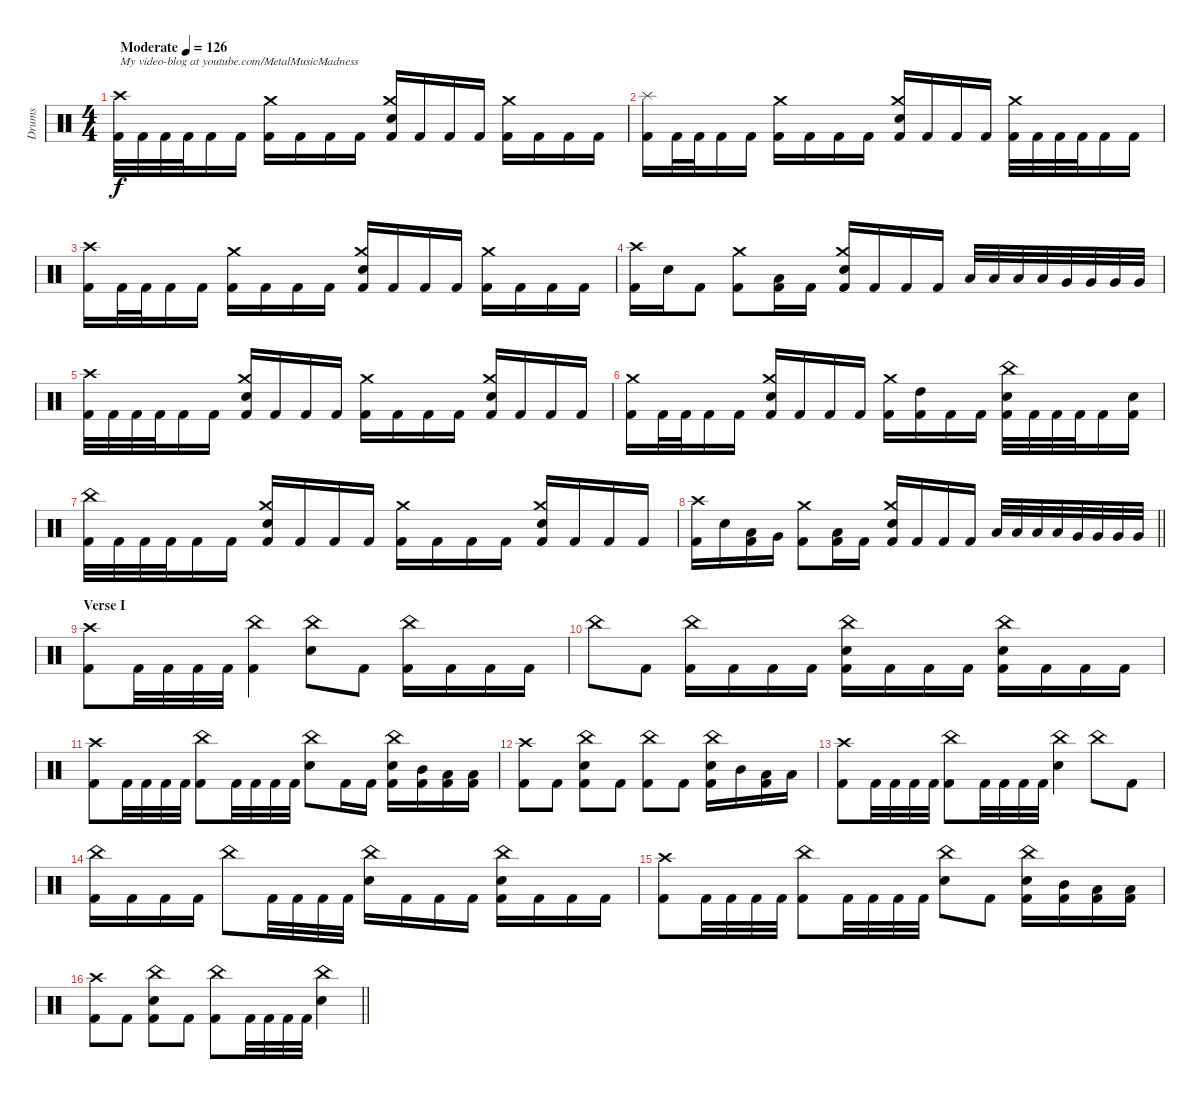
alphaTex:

\track ("Drums" "Drums") {instrument percussion}
\staff {score}
\articulation defaults
\ts (4 4)
\tempo (126 "Moderate")
\clef neutral
\ks c
("Crash high (hit)" "Kick (hit) 2").32{txt "My video-blog at youtube.com/MetalMusicMadness" dy f} "Kick (hit) 2".32 "Kick (hit) 2".32 "Kick (hit) 2".32 "Kick (hit) 2".16 "Kick (hit) 2".16 ("Crash medium (hit)" "Kick (hit) 2").16 "Kick (hit) 2".16 "Kick (hit) 2".16 "Kick (hit) 2".16 ("Crash medium (hit)" "Electric Snare (hit)" "Kick (hit) 2").16 "Kick (hit) 2".16 "Kick (hit) 2".16 "Kick (hit) 2".16 ("Crash medium (hit)" "Kick (hit) 2").16 "Kick (hit) 2".16 "Kick (hit) 2".16 "Kick (hit) 2".16 |
("Splash (hit)" "Kick (hit) 2").16 "Kick (hit) 2".32 "Kick (hit) 2".32 "Kick (hit) 2".16 "Kick (hit) 2".16 ("Crash medium (hit)" "Kick (hit) 2").16 "Kick (hit) 2".16 "Kick (hit) 2".16 "Kick (hit) 2".16 ("Crash medium (hit)" "Electric Snare (hit)" "Kick (hit) 2").16 "Kick (hit) 2".16 "Kick (hit) 2".16 "Kick (hit) 2".16 ("Crash medium (hit)" "Kick (hit) 2").32 "Kick (hit) 2".32 "Kick (hit) 2".32 "Kick (hit) 2".32 "Kick (hit) 2".16 "Kick (hit) 2".16 |
("Crash high (hit)" "Kick (hit) 2").16 "Kick (hit) 2".32 "Kick (hit) 2".32 "Kick (hit) 2".16 "Kick (hit) 2".16 ("Crash medium (hit)" "Kick (hit) 2").16 "Kick (hit) 2".16 "Kick (hit) 2".16 "Kick (hit) 2".16 ("Crash medium (hit)" "Electric Snare (hit)" "Kick (hit) 2").16 "Kick (hit) 2".16 "Kick (hit) 2".16 "Kick (hit) 2".16 ("Crash medium (hit)" "Kick (hit) 2").16 "Kick (hit) 2".16 "Kick (hit) 2".16 "Kick (hit) 2".16 |
("Crash high (hit)" "Kick (hit) 2").16 "Electric Snare (hit)".16 "Kick (hit) 2".8 ("Crash medium (hit)" "Kick (hit) 2").8 ("Low Tom (hit)" "Kick (hit) 2").16 "Kick (hit) 2".16 ("Crash medium (hit)" "Electric Snare (hit)" "Kick (hit) 2").16 "Kick (hit) 2".16 "Kick (hit) 2".16 "Kick (hit) 2".16 "Low Tom (hit)".32 "Low Tom (hit)".32 "Low Tom (hit)".32 "Low Tom (hit)".32 "Very Low Tom (hit)".32 "Very Low Tom (hit)".32 "Very Low Tom (hit)".32 "Very Low Tom (hit)".32 |
("Crash high (hit)" "Kick (hit) 2").32 "Kick (hit) 2".32 "Kick (hit) 2".32 "Kick (hit) 2".32 "Kick (hit) 2".16 "Kick (hit) 2".16 ("Crash medium (hit)" "Electric Snare (hit)" "Kick (hit) 2").16 "Kick (hit) 2".16 "Kick (hit) 2".16 "Kick (hit) 2".16 ("Crash medium (hit)" "Kick (hit) 2").16 "Kick (hit) 2".16 "Kick (hit) 2".16 "Kick (hit) 2".16 ("Crash medium (hit)" "Electric Snare (hit)" "Kick (hit) 2").16 "Kick (hit) 2".16 "Kick (hit) 2".16 "Kick (hit) 2".16 |
("Crash medium (hit)" "Kick (hit) 2").16 "Kick (hit) 2".32 "Kick (hit) 2".32 "Kick (hit) 2".16 "Kick (hit) 2".16 ("Crash medium (hit)" "Electric Snare (hit)" "Kick (hit) 2").16 "Kick (hit) 2".16 "Kick (hit) 2".16 "Kick (hit) 2".16 ("Crash medium (hit)" "Kick (hit) 2").16 ("High Tom (hit)" "Kick (hit) 2").16 "Kick (hit) 2".16 "Kick (hit) 2".16 ("China (hit)" "Electric Snare (hit)" "Kick (hit) 2").32 "Kick (hit) 2".32 "Kick (hit) 2".32 "Kick (hit) 2".32 "Kick (hit) 2".16 ("Electric Snare (hit)" "Kick (hit) 2").16 |
("China (hit)" "Kick (hit) 2").32 "Kick (hit) 2".32 "Kick (hit) 2".32 "Kick (hit) 2".32 "Kick (hit) 2".16 "Kick (hit) 2".16 ("Crash medium (hit)" "Electric Snare (hit)" "Kick (hit) 2").16 "Kick (hit) 2".16 "Kick (hit) 2".16 "Kick (hit) 2".16 ("Crash medium (hit)" "Kick (hit) 2").16 "Kick (hit) 2".16 "Kick (hit) 2".16 "Kick (hit) 2".16 ("Crash medium (hit)" "Electric Snare (hit)" "Kick (hit) 2").16 "Kick (hit) 2".16 "Kick (hit) 2".16 "Kick (hit) 2".16 |
\barLineRight lightlight
("Crash high (hit)" "Kick (hit) 2").16 "Electric Snare (hit)".16 ("Low Tom (hit)" "Kick (hit) 2").16 "Very Low Tom (hit)".16 ("Crash medium (hit)" "Kick (hit) 2").8 ("Low Tom (hit)" "Kick (hit) 2").16 "Kick (hit) 2".16 ("Crash medium (hit)" "Electric Snare (hit)" "Kick (hit) 2").16 "Kick (hit) 2".16 "Kick (hit) 2".16 "Kick (hit) 2".16 "Low Tom (hit)".32 "Low Tom (hit)".32 "Low Tom (hit)".32 "Low Tom (hit)".32 "Very Low Tom (hit)".32 "Very Low Tom (hit)".32 "Very Low Tom (hit)".32 "Very Low Tom (hit)".32 |
\section ("" "Verse I")
("Crash high (hit)" "Kick (hit) 2").8 "Kick (hit) 2".32 "Kick (hit) 2".32 "Kick (hit) 2".32 "Kick (hit) 2".32 ("China (hit)" "Kick (hit) 2").4 ("China (hit)" "Electric Snare (hit)").8 "Kick (hit) 2".8 ("China (hit)" "Kick (hit) 2").16 "Kick (hit) 2".16 "Kick (hit) 2".16 "Kick (hit) 2".16 |
"China (hit)".8 "Kick (hit) 2".8 ("China (hit)" "Kick (hit) 2").16 "Kick (hit) 2".16 "Kick (hit) 2".16 "Kick (hit) 2".16 ("China (hit)" "Electric Snare (hit)" "Kick (hit) 2").16 "Kick (hit) 2".16 "Kick (hit) 2".16 "Kick (hit) 2".16 ("China (hit)" "Electric Snare (hit)" "Kick (hit) 2").16 "Kick (hit) 2".16 "Kick (hit) 2".16 "Kick (hit) 2".16 |
("Crash high (hit)" "Kick (hit) 2").8 "Kick (hit) 2".32 "Kick (hit) 2".32 "Kick (hit) 2".32 "Kick (hit) 2".32 ("China (hit)" "Kick (hit) 2").8 "Kick (hit) 2".32 "Kick (hit) 2".32 "Kick (hit) 2".32 "Kick (hit) 2".32 ("China (hit)" "Electric Snare (hit)").8 "Kick (hit) 2".16 "Kick (hit) 2".16 ("China (hit)" "Electric Snare (hit)" "Kick (hit) 2").16 ("Mid Tom (hit)" "Kick (hit) 2").16 ("Low Tom (hit)" "Kick (hit) 2").16 ("Low Tom (hit)" "Kick (hit) 2").16 |
("Crash high (hit)" "Kick (hit) 2").8 "Kick (hit) 2".8 ("China (hit)" "Electric Snare (hit)" "Kick (hit) 2").8 "Kick (hit) 2".8 ("China (hit)" "Kick (hit) 2").8 "Kick (hit) 2".8 ("China (hit)" "Electric Snare (hit)" "Kick (hit) 2").16 "Mid Tom (hit)".16 ("Low Tom (hit)" "Kick (hit) 2").16 "Low Tom (hit)".16 |
("Crash high (hit)" "Kick (hit) 2").8 "Kick (hit) 2".32 "Kick (hit) 2".32 "Kick (hit) 2".32 "Kick (hit) 2".32 ("China (hit)" "Kick (hit) 2").8 "Kick (hit) 2".32 "Kick (hit) 2".32 "Kick (hit) 2".32 "Kick (hit) 2".32 ("China (hit)" "Electric Snare (hit)").4 "China (hit)".8 "Kick (hit) 2".8 |
("China (hit)" "Kick (hit) 2").16 "Kick (hit) 2".16 "Kick (hit) 2".16 "Kick (hit) 2".16 "China (hit)".8 "Kick (hit) 2".32 "Kick (hit) 2".32 "Kick (hit) 2".32 "Kick (hit) 2".32 ("China (hit)" "Electric Snare (hit)").16 "Kick (hit) 2".16 "Kick (hit) 2".16 "Kick (hit) 2".16 ("China (hit)" "Electric Snare (hit)" "Kick (hit) 2").16 "Kick (hit) 2".16 "Kick (hit) 2".16 "Kick (hit) 2".16 |
("Crash high (hit)" "Kick (hit) 2").8 "Kick (hit) 2".32 "Kick (hit) 2".32 "Kick (hit) 2".32 "Kick (hit) 2".32 ("China (hit)" "Kick (hit) 2").8 "Kick (hit) 2".32 "Kick (hit) 2".32 "Kick (hit) 2".32 "Kick (hit) 2".32 ("China (hit)" "Electric Snare (hit)").8 "Kick (hit) 2".8 ("China (hit)" "Electric Snare (hit)" "Kick (hit) 2").16 ("Mid Tom (hit)" "Kick (hit) 2").16 ("Low Tom (hit)" "Kick (hit) 2").16 ("Low Tom (hit)" "Kick (hit) 2").16 |
\barLineRight lightlight
("Crash high (hit)" "Kick (hit) 2").8 "Kick (hit) 2".8 ("China (hit)" "Electric Snare (hit)" "Kick (hit) 2").8 "Kick (hit) 2".8 ("China (hit)" "Kick (hit) 2").8 "Kick (hit) 2".32 "Kick (hit) 2".32 "Kick (hit) 2".32 "Kick (hit) 2".32 ("China (hit)" "Electric Snare (hit)").4
